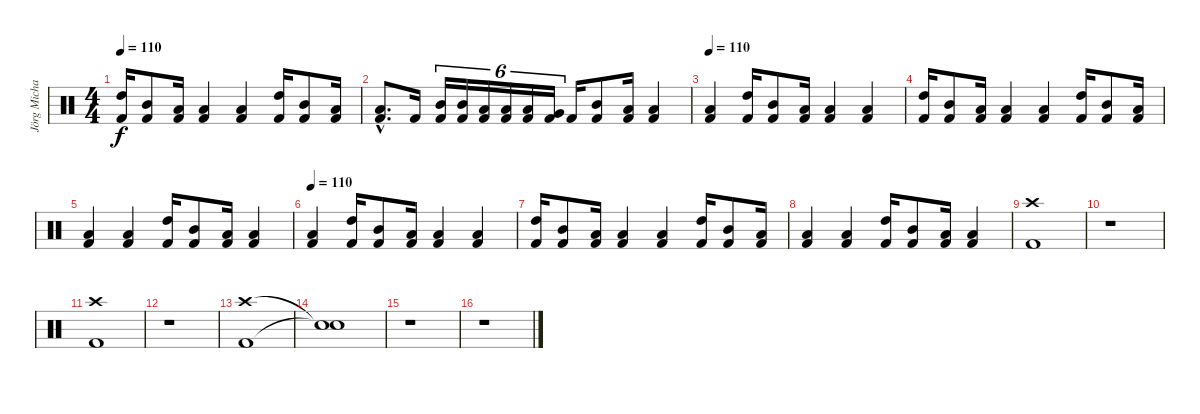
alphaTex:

\track ("Jörg Michael" "Jörg Micha") {instrument percussion}
\staff {score}
\articulation defaults
\ts (4 4)
\tempo 110
\clef neutral
\ks c
("Kick (hit) 2" "High Tom (hit)").16{dy f} ("Kick (hit) 2" "Mid Tom (hit)").8 ("Kick (hit) 2" "Low Tom (hit)").16 ("Kick (hit) 2" "Low Tom (hit)").4 ("Kick (hit) 2" "Low Tom (hit)").4 ("Kick (hit) 2" "High Tom (hit)").16 ("Kick (hit) 2" "Mid Tom (hit)").8 ("Kick (hit) 2" "Low Tom (hit)").16 |
("Kick (hit) 2"{hac} "Low Tom (hit)"{hac}).8{d} "Kick (hit) 2".16 ("Kick (hit) 2" "Mid Tom (hit)").16{tu (6 4)} ("Kick (hit) 2" "Mid Tom (hit)").16{tu (6 4)} ("Kick (hit) 2" "Low Tom (hit)").16{tu (6 4)} ("Kick (hit) 2" "Low Tom (hit)").16{tu (6 4)} ("Kick (hit) 2" "Low Tom (hit)").16{tu (6 4)} ("Kick (hit) 2" "Very Low Tom (hit)").16{tu (6 4)} "Kick (hit) 2".16 ("Kick (hit) 2" "Mid Tom (hit)").8 ("Kick (hit) 2" "Low Tom (hit)").16 ("Kick (hit) 2" "Low Tom (hit)").4 |
\tempo 110
("Kick (hit) 2" "Low Tom (hit)").4 ("Kick (hit) 2" "High Tom (hit)").16 ("Kick (hit) 2" "Mid Tom (hit)").8 ("Kick (hit) 2" "Low Tom (hit)").16 ("Kick (hit) 2" "Low Tom (hit)").4 ("Kick (hit) 2" "Low Tom (hit)").4 |
("Kick (hit) 2" "High Tom (hit)").16 ("Kick (hit) 2" "Mid Tom (hit)").8 ("Kick (hit) 2" "Low Tom (hit)").16 ("Kick (hit) 2" "Low Tom (hit)").4 ("Kick (hit) 2" "Low Tom (hit)").4 ("Kick (hit) 2" "High Tom (hit)").16 ("Kick (hit) 2" "Mid Tom (hit)").8 ("Kick (hit) 2" "Low Tom (hit)").16 |
("Kick (hit) 2" "Low Tom (hit)").4 ("Kick (hit) 2" "Low Tom (hit)").4 ("Kick (hit) 2" "High Tom (hit)").16 ("Kick (hit) 2" "Mid Tom (hit)").8 ("Kick (hit) 2" "Low Tom (hit)").16 ("Kick (hit) 2" "Low Tom (hit)").4 |
\tempo 110
("Kick (hit) 2" "Low Tom (hit)").4 ("Kick (hit) 2" "High Tom (hit)").16 ("Kick (hit) 2" "Mid Tom (hit)").8 ("Kick (hit) 2" "Low Tom (hit)").16 ("Kick (hit) 2" "Low Tom (hit)").4 ("Kick (hit) 2" "Low Tom (hit)").4 |
("Kick (hit) 2" "High Tom (hit)").16 ("Kick (hit) 2" "Mid Tom (hit)").8 ("Kick (hit) 2" "Low Tom (hit)").16 ("Kick (hit) 2" "Low Tom (hit)").4 ("Kick (hit) 2" "Low Tom (hit)").4 ("Kick (hit) 2" "High Tom (hit)").16 ("Kick (hit) 2" "Mid Tom (hit)").8 ("Kick (hit) 2" "Low Tom (hit)").16 |
("Kick (hit) 2" "Low Tom (hit)").4 ("Kick (hit) 2" "Low Tom (hit)").4 ("Kick (hit) 2" "High Tom (hit)").16 ("Kick (hit) 2" "Mid Tom (hit)").8 ("Kick (hit) 2" "Low Tom (hit)").16 ("Kick (hit) 2" "Low Tom (hit)").4 |
("Kick (hit) 2" "Crash high (hit)").1 |
r.1 |
("Kick (hit) 2" "Crash high (hit)").1 |
r.1 |
("Kick (hit) 2" "Crash high (hit)").1 |
("Snare (hit)"{t} "Snare (hit)"{t}).1 |
r.1 |
r.1
